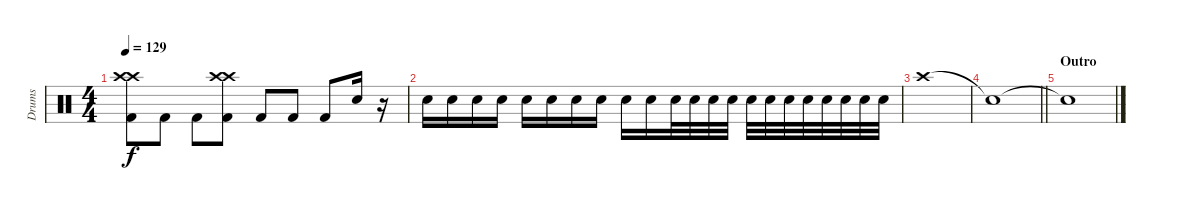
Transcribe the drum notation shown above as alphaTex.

\track ("Drums" "Drums") {instrument percussion}
\staff {score}
\articulation defaults
\ts (4 4)
\tempo 129
\clef neutral
\ks c
("Crash high (hit)" "Crash high (hit)" "Kick (hit) 2").8{dy f} "Kick (hit) 2".8 "Kick (hit) 2".8 ("Crash high (hit)" "Crash high (hit)" "Kick (hit) 2").8 "Kick (hit) 2".8 "Kick (hit) 2".8 "Kick (hit) 2".8 "Snare (hit) 2".16 r.16 |
"Snare (hit) 2".16 "Snare (hit) 2".16 "Snare (hit) 2".16 "Snare (hit) 2".16 "Snare (hit) 2".16 "Snare (hit) 2".16 "Snare (hit) 2".16 "Snare (hit) 2".16 "Snare (hit) 2".16 "Snare (hit) 2".16 "Snare (hit) 2".32 "Snare (hit) 2".32 "Snare (hit) 2".32 "Snare (hit) 2".32 "Snare (hit) 2".32 "Snare (hit) 2".32 "Snare (hit) 2".32 "Snare (hit) 2".32 "Snare (hit) 2".32 "Snare (hit) 2".32 "Snare (hit) 2".32 "Snare (hit) 2".32 |
"Crash high (hit)".1 |
\barLineRight lightlight "Snare (hit)"{t}.1
|
\section ("" "Outro")
"Snare (hit)"{t}.1
